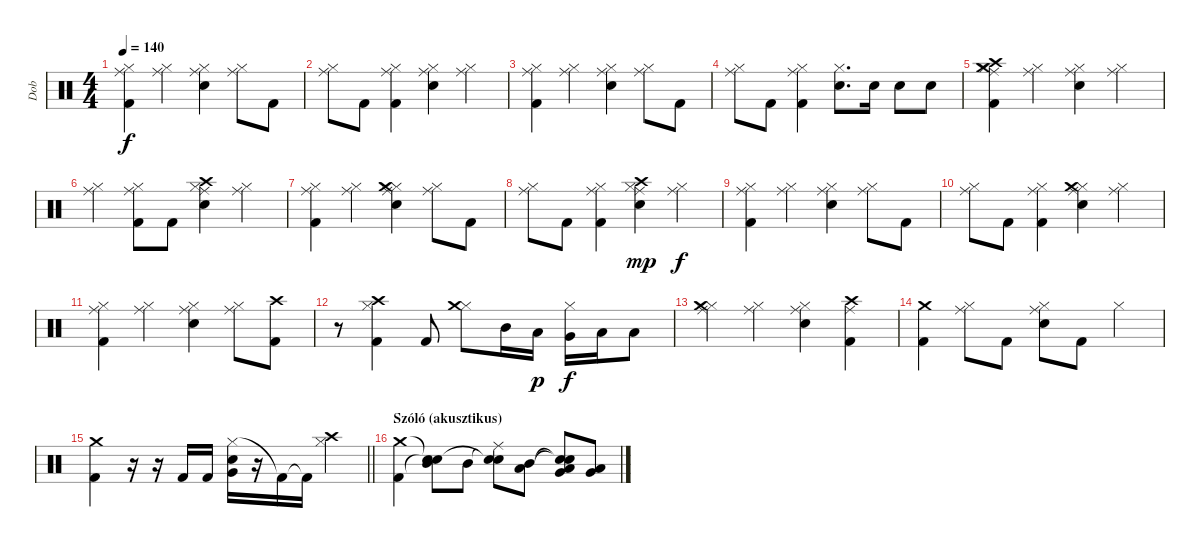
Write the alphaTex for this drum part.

\track ("Dob" "Dob") {instrument percussion}
\staff {score}
\articulation defaults
\ts (4 4)
\tempo 140
\clef neutral
\ks c
("Hi-Hat (closed)" "Kick (hit) 2" "Ride (middle)").4{dy f} ("Hi-Hat (closed)" "Ride (middle)").4 ("Hi-Hat (closed)" "Electric Snare (hit)" "Ride (middle)").4 ("Hi-Hat (closed)" "Ride (middle)").8 "Kick (hit) 2".8 |
("Hi-Hat (closed)" "Ride (middle)").8 "Kick (hit) 2".8 ("Hi-Hat (closed)" "Kick (hit) 2" "Ride (middle)").4 ("Hi-Hat (closed)" "Electric Snare (hit)" "Ride (middle)").4 ("Hi-Hat (closed)" "Ride (middle)").4 |
("Hi-Hat (closed)" "Kick (hit) 2" "Ride (middle)").4 ("Hi-Hat (closed)" "Ride (middle)").4 ("Hi-Hat (closed)" "Electric Snare (hit)" "Ride (middle)").4 ("Hi-Hat (closed)" "Ride (middle)").8 "Kick (hit) 2".8 |
("Hi-Hat (closed)" "Ride (middle)").8 "Kick (hit) 2".8 ("Hi-Hat (closed)" "Kick (hit) 2" "Ride (middle)").4 ("Hi-Hat (closed)" "Electric Snare (hit)").8{d} "Electric Snare (hit)".16 "Electric Snare (hit)".8 "Electric Snare (hit)".8 |
("Hi-Hat (closed)" "Crash high (hit)" "Kick (hit) 2" "Crash medium (hit)" "Ride (middle)").4 ("Hi-Hat (closed)" "Ride (middle)").4 ("Hi-Hat (closed)" "Electric Snare (hit)" "Ride (middle)").4 ("Hi-Hat (closed)" "Ride (middle)").4 |
("Hi-Hat (closed)" "Ride (middle)").4 ("Hi-Hat (closed)" "Kick (hit) 2" "Ride (middle)").8 "Kick (hit) 2".8 ("Hi-Hat (closed)" "Crash high (hit)" "Electric Snare (hit)" "Ride (middle)").4 ("Hi-Hat (closed)" "Ride (middle)").4 |
("Hi-Hat (closed)" "Kick (hit) 2" "Ride (middle)").4 ("Hi-Hat (closed)" "Ride (middle)").4 ("Hi-Hat (closed)" "Crash medium (hit)" "Electric Snare (hit)" "Ride (middle)").4 ("Hi-Hat (closed)" "Ride (middle)").8 "Kick (hit) 2".8 |
("Hi-Hat (closed)" "Ride (middle)").8 "Kick (hit) 2".8 ("Hi-Hat (closed)" "Kick (hit) 2" "Ride (middle)").4 ("Hi-Hat (closed)" "Crash high (hit)" "Electric Snare (hit)" "Ride (middle)").4{dy mp} ("Hi-Hat (closed)" "Ride (middle)").4{dy f} |
("Hi-Hat (closed)" "Kick (hit) 2" "Ride (middle)").4 ("Hi-Hat (closed)" "Ride (middle)").4 ("Hi-Hat (closed)" "Electric Snare (hit)" "Ride (middle)").4 ("Hi-Hat (closed)" "Ride (middle)").8 "Kick (hit) 2".8 |
("Hi-Hat (closed)" "Ride (middle)").8 "Kick (hit) 2".8 ("Hi-Hat (closed)" "Kick (hit) 2" "Ride (middle)").4 ("Hi-Hat (closed)" "Crash medium (hit)" "Electric Snare (hit)" "Ride (middle)").4 ("Hi-Hat (closed)" "Ride (middle)").4 |
("Hi-Hat (closed)" "Kick (hit) 2" "Ride (middle)").4 ("Hi-Hat (closed)" "Ride (middle)").4 ("Hi-Hat (closed)" "Electric Snare (hit)" "Ride (middle)").4 ("Hi-Hat (closed)" "Ride (middle)").8 ("Crash high (hit)" "Kick (hit) 2").8 |
r.8 ("Hi-Hat (closed)" "Crash high (hit)" "Kick (hit) 2").4 "Kick (hit) 2".8 ("Hi-Hat (closed)" "Crash medium (hit)").8 "Mid Tom (hit)".16 "Low Tom (hit)".16{dy p} ("Hi-Hat (closed)" "Very Low Tom (hit)").16{dy f} "Low Floor Tom (hit)".16 "Low Floor Tom (hit)".8 |
("Hi-Hat (closed)" "Crash medium (hit)" "Ride (middle)").4 ("Hi-Hat (closed)" "Ride (middle)").4 ("Hi-Hat (closed)" "Electric Snare (hit)" "Ride (middle)").4 ("Crash high (hit)" "Kick (hit) 2" "Ride (middle)").4 |
("Crash medium (hit)" "Kick (hit) 2").4 ("Hi-Hat (closed)" "Ride (middle)").8 "Kick (hit) 2".8 ("Hi-Hat (closed)" "Electric Snare (hit)" "Ride (middle)").8 "Kick (hit) 2".8 "Hi-Hat (closed)".4 |
\barLineRight lightlight
("Crash medium (hit)" "Kick (hit) 2").4 r.16 r.16 "Kick (hit) 2".16 "Kick (hit) 2".16 ("Hi-Hat (closed)" "Very Low Tom (hit)" "Electric Snare (hit)").16 r.16 "Kick (hit) 2"{t}.16 "Kick (hit) 2"{t}.16 ("Hi-Hat (closed)" "Crash high (hit)").4 |
\section ("" "Szóló (akusztikus)")
("Crash medium (hit)" "Kick (hit) 2").4 ("Snare (hit)"{t} "Snare (hit)"{t} "Mid Tom (hit)").8 "Mid Tom (hit)".8 ("Snare (hit)"{t} "Snare (hit)"{t} "Ride (middle)").8 ("Low Tom (hit)" "Mid Tom (hit)").8 ("Snare (hit)"{t} "Snare (hit)"{t} "Very Low Tom (hit)" "Low Tom (hit)").8 ("Low Floor Tom (hit)" "Very Low Tom (hit)").8
